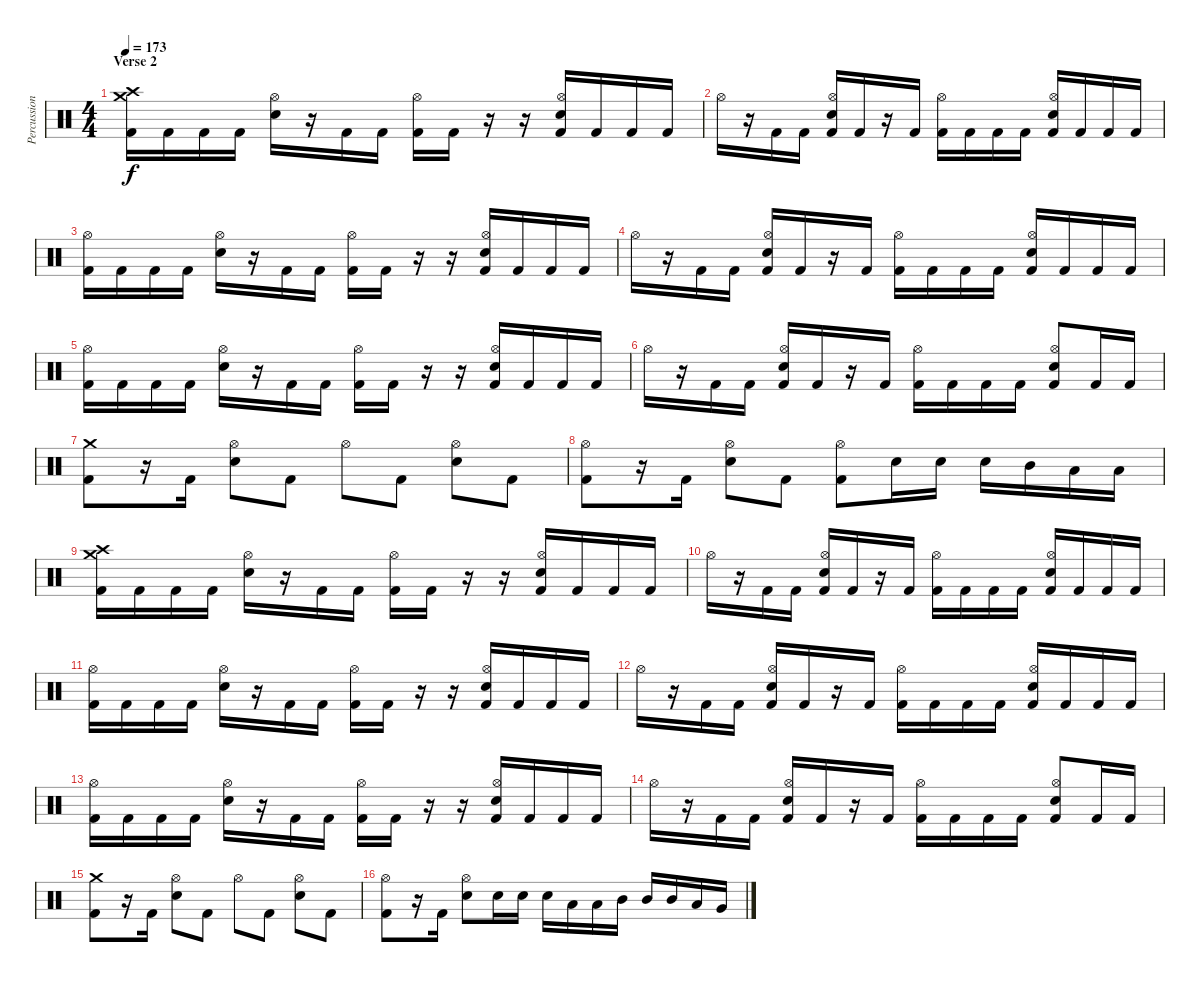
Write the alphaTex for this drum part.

\track ("Percussions" "Percussion") {instrument percussion}
\staff {score}
\articulation defaults
\ts (4 4)
\section ("" "Verse 2")
\tempo 173
\clef neutral
\ks c
("Crash high (hit)" "Crash medium (hit)" "Kick (hit) 2").16{dy f} "Kick (hit) 2".16 "Kick (hit) 2".16 "Kick (hit) 2".16 ("Hi-Hat (open)" "Electric Snare (hit)").16 r.16 "Kick (hit) 2".16 "Kick (hit) 2".16 ("Hi-Hat (open)" "Kick (hit) 2").16 "Kick (hit) 2".16 r.16 r.16 ("Hi-Hat (open)" "Electric Snare (hit)" "Kick (hit) 2").16 "Kick (hit) 2".16 "Kick (hit) 2".16 "Kick (hit) 2".16 |
"Hi-Hat (open)".16 r.16 "Kick (hit) 2".16 "Kick (hit) 2".16 ("Hi-Hat (open)" "Electric Snare (hit)" "Kick (hit) 2").16 "Kick (hit) 2".16 r.16 "Kick (hit) 2".16 ("Hi-Hat (open)" "Kick (hit) 2").16 "Kick (hit) 2".16 "Kick (hit) 2".16 "Kick (hit) 2".16 ("Hi-Hat (open)" "Electric Snare (hit)" "Kick (hit) 2").16 "Kick (hit) 2".16 "Kick (hit) 2".16 "Kick (hit) 2".16 |
("Hi-Hat (open)" "Kick (hit) 2").16 "Kick (hit) 2".16 "Kick (hit) 2".16 "Kick (hit) 2".16 ("Hi-Hat (open)" "Electric Snare (hit)").16 r.16 "Kick (hit) 2".16 "Kick (hit) 2".16 ("Hi-Hat (open)" "Kick (hit) 2").16 "Kick (hit) 2".16 r.16 r.16 ("Hi-Hat (open)" "Electric Snare (hit)" "Kick (hit) 2").16 "Kick (hit) 2".16 "Kick (hit) 2".16 "Kick (hit) 2".16 |
"Hi-Hat (open)".16 r.16 "Kick (hit) 2".16 "Kick (hit) 2".16 ("Hi-Hat (open)" "Electric Snare (hit)" "Kick (hit) 2").16 "Kick (hit) 2".16 r.16 "Kick (hit) 2".16 ("Hi-Hat (open)" "Kick (hit) 2").16 "Kick (hit) 2".16 "Kick (hit) 2".16 "Kick (hit) 2".16 ("Hi-Hat (open)" "Electric Snare (hit)" "Kick (hit) 2").16 "Kick (hit) 2".16 "Kick (hit) 2".16 "Kick (hit) 2".16 |
("Hi-Hat (open)" "Kick (hit) 2").16 "Kick (hit) 2".16 "Kick (hit) 2".16 "Kick (hit) 2".16 ("Hi-Hat (open)" "Electric Snare (hit)").16 r.16 "Kick (hit) 2".16 "Kick (hit) 2".16 ("Hi-Hat (open)" "Kick (hit) 2").16 "Kick (hit) 2".16 r.16 r.16 ("Hi-Hat (open)" "Electric Snare (hit)" "Kick (hit) 2").16 "Kick (hit) 2".16 "Kick (hit) 2".16 "Kick (hit) 2".16 |
"Hi-Hat (open)".16 r.16 "Kick (hit) 2".16 "Kick (hit) 2".16 ("Hi-Hat (open)" "Electric Snare (hit)" "Kick (hit) 2").16 "Kick (hit) 2".16 r.16 "Kick (hit) 2".16 ("Hi-Hat (open)" "Kick (hit) 2").16 "Kick (hit) 2".16 "Kick (hit) 2".16 "Kick (hit) 2".16 ("Hi-Hat (open)" "Electric Snare (hit)" "Kick (hit) 2").8 "Kick (hit) 2".16 "Kick (hit) 2".16 |
("Crash medium (hit)" "Kick (hit) 2").8 r.16 "Kick (hit) 2".16 ("Hi-Hat (open)" "Electric Snare (hit)").8 "Kick (hit) 2".8 "Hi-Hat (open)".8 "Kick (hit) 2".8 ("Hi-Hat (open)" "Electric Snare (hit)").8 "Kick (hit) 2".8 |
("Hi-Hat (open)" "Kick (hit) 2").8 r.16 "Kick (hit) 2".16 ("Hi-Hat (open)" "Electric Snare (hit)").8 "Kick (hit) 2".8 ("Hi-Hat (open)" "Kick (hit) 2").8 "Electric Snare (hit)".16 "Electric Snare (hit)".16 "Electric Snare (hit)".16 "Mid Tom (hit)".16 "Low Tom (hit)".16 "Low Tom (hit)".16 |
("Crash high (hit)" "Crash medium (hit)" "Kick (hit) 2").16 "Kick (hit) 2".16 "Kick (hit) 2".16 "Kick (hit) 2".16 ("Hi-Hat (open)" "Electric Snare (hit)").16 r.16 "Kick (hit) 2".16 "Kick (hit) 2".16 ("Hi-Hat (open)" "Kick (hit) 2").16 "Kick (hit) 2".16 r.16 r.16 ("Hi-Hat (open)" "Electric Snare (hit)" "Kick (hit) 2").16 "Kick (hit) 2".16 "Kick (hit) 2".16 "Kick (hit) 2".16 |
"Hi-Hat (open)".16 r.16 "Kick (hit) 2".16 "Kick (hit) 2".16 ("Hi-Hat (open)" "Electric Snare (hit)" "Kick (hit) 2").16 "Kick (hit) 2".16 r.16 "Kick (hit) 2".16 ("Hi-Hat (open)" "Kick (hit) 2").16 "Kick (hit) 2".16 "Kick (hit) 2".16 "Kick (hit) 2".16 ("Hi-Hat (open)" "Electric Snare (hit)" "Kick (hit) 2").16 "Kick (hit) 2".16 "Kick (hit) 2".16 "Kick (hit) 2".16 |
("Hi-Hat (open)" "Kick (hit) 2").16 "Kick (hit) 2".16 "Kick (hit) 2".16 "Kick (hit) 2".16 ("Hi-Hat (open)" "Electric Snare (hit)").16 r.16 "Kick (hit) 2".16 "Kick (hit) 2".16 ("Hi-Hat (open)" "Kick (hit) 2").16 "Kick (hit) 2".16 r.16 r.16 ("Hi-Hat (open)" "Electric Snare (hit)" "Kick (hit) 2").16 "Kick (hit) 2".16 "Kick (hit) 2".16 "Kick (hit) 2".16 |
"Hi-Hat (open)".16 r.16 "Kick (hit) 2".16 "Kick (hit) 2".16 ("Hi-Hat (open)" "Electric Snare (hit)" "Kick (hit) 2").16 "Kick (hit) 2".16 r.16 "Kick (hit) 2".16 ("Hi-Hat (open)" "Kick (hit) 2").16 "Kick (hit) 2".16 "Kick (hit) 2".16 "Kick (hit) 2".16 ("Hi-Hat (open)" "Electric Snare (hit)" "Kick (hit) 2").16 "Kick (hit) 2".16 "Kick (hit) 2".16 "Kick (hit) 2".16 |
("Hi-Hat (open)" "Kick (hit) 2").16 "Kick (hit) 2".16 "Kick (hit) 2".16 "Kick (hit) 2".16 ("Hi-Hat (open)" "Electric Snare (hit)").16 r.16 "Kick (hit) 2".16 "Kick (hit) 2".16 ("Hi-Hat (open)" "Kick (hit) 2").16 "Kick (hit) 2".16 r.16 r.16 ("Hi-Hat (open)" "Electric Snare (hit)" "Kick (hit) 2").16 "Kick (hit) 2".16 "Kick (hit) 2".16 "Kick (hit) 2".16 |
"Hi-Hat (open)".16 r.16 "Kick (hit) 2".16 "Kick (hit) 2".16 ("Hi-Hat (open)" "Electric Snare (hit)" "Kick (hit) 2").16 "Kick (hit) 2".16 r.16 "Kick (hit) 2".16 ("Hi-Hat (open)" "Kick (hit) 2").16 "Kick (hit) 2".16 "Kick (hit) 2".16 "Kick (hit) 2".16 ("Hi-Hat (open)" "Electric Snare (hit)" "Kick (hit) 2").8 "Kick (hit) 2".16 "Kick (hit) 2".16 |
("Crash medium (hit)" "Kick (hit) 2").8 r.16 "Kick (hit) 2".16 ("Hi-Hat (open)" "Electric Snare (hit)").8 "Kick (hit) 2".8 "Hi-Hat (open)".8 "Kick (hit) 2".8 ("Hi-Hat (open)" "Electric Snare (hit)").8 "Kick (hit) 2".8 |
("Hi-Hat (open)" "Kick (hit) 2").8 r.16 "Kick (hit) 2".16 ("Hi-Hat (open)" "Electric Snare (hit)").8 "Electric Snare (hit)".16 "Electric Snare (hit)".16 "Electric Snare (hit)".16 "Low Tom (hit)".16 "Low Tom (hit)".16 "Mid Tom (hit)".16 "Mid Tom (hit)".16 "Mid Tom (hit)".16 "Low Tom (hit)".16 "Very Low Tom (hit)".16
